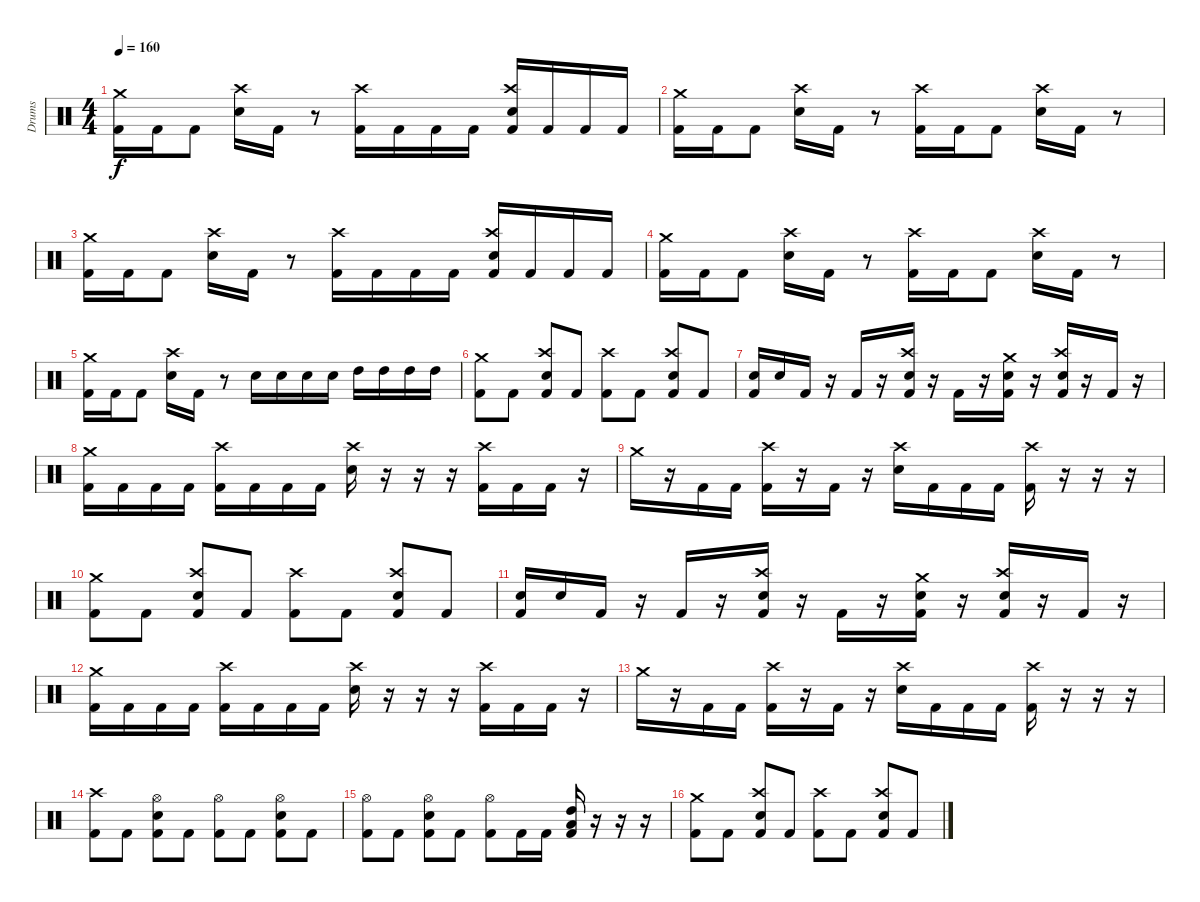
\track ("Drums" "Drums") {instrument percussion}
\staff {score}
\articulation defaults
\ts (4 4)
\tempo 160
\clef neutral
\ks c
("Crash medium (hit)" "Kick (hit) 2").16{dy f} "Kick (hit) 2".16 "Kick (hit) 2".8 ("Crash high (hit)" "Electric Snare (hit)").16 "Kick (hit) 2".16 r.8 ("Crash high (hit)" "Kick (hit) 2").16 "Kick (hit) 2".16 "Kick (hit) 2".16 "Kick (hit) 2".16 ("Crash high (hit)" "Electric Snare (hit)" "Kick (hit) 2").16 "Kick (hit) 2".16 "Kick (hit) 2".16 "Kick (hit) 2".16 |
("Crash medium (hit)" "Kick (hit) 2").16 "Kick (hit) 2".16 "Kick (hit) 2".8 ("Crash high (hit)" "Electric Snare (hit)").16 "Kick (hit) 2".16 r.8 ("Crash high (hit)" "Kick (hit) 2").16 "Kick (hit) 2".16 "Kick (hit) 2".8 ("Crash high (hit)" "Electric Snare (hit)").16 "Kick (hit) 2".16 r.8 |
("Crash medium (hit)" "Kick (hit) 2").16 "Kick (hit) 2".16 "Kick (hit) 2".8 ("Crash high (hit)" "Electric Snare (hit)").16 "Kick (hit) 2".16 r.8 ("Crash high (hit)" "Kick (hit) 2").16 "Kick (hit) 2".16 "Kick (hit) 2".16 "Kick (hit) 2".16 ("Crash high (hit)" "Electric Snare (hit)" "Kick (hit) 2").16 "Kick (hit) 2".16 "Kick (hit) 2".16 "Kick (hit) 2".16 |
("Crash medium (hit)" "Kick (hit) 2").16 "Kick (hit) 2".16 "Kick (hit) 2".8 ("Crash high (hit)" "Electric Snare (hit)").16 "Kick (hit) 2".16 r.8 ("Crash high (hit)" "Kick (hit) 2").16 "Kick (hit) 2".16 "Kick (hit) 2".8 ("Crash high (hit)" "Electric Snare (hit)").16 "Kick (hit) 2".16 r.8 |
("Crash medium (hit)" "Kick (hit) 2").16 "Kick (hit) 2".16 "Kick (hit) 2".8 ("Crash high (hit)" "Electric Snare (hit)").16 "Kick (hit) 2".16 r.8 "Electric Snare (hit)".16 "Electric Snare (hit)".16 "Electric Snare (hit)".16 "Electric Snare (hit)".16 "High Tom (hit)".16 "High Tom (hit)".16 "High Tom (hit)".16 "High Tom (hit)".16 |
("Crash medium (hit)" "Kick (hit) 2").8 "Kick (hit) 2".8 ("Crash high (hit)" "Electric Snare (hit)" "Kick (hit) 2").8 "Kick (hit) 2".8 ("Crash high (hit)" "Kick (hit) 2").8 "Kick (hit) 2".8 ("Crash high (hit)" "Electric Snare (hit)" "Kick (hit) 2").8 "Kick (hit) 2".8 |
("Electric Snare (hit)" "Kick (hit) 2").16 "Electric Snare (hit)".16 "Kick (hit) 2".16 r.16 "Kick (hit) 2".16 r.16 ("Crash high (hit)" "Electric Snare (hit)" "Kick (hit) 2").16 r.16 "Kick (hit) 2".16 r.16 ("Crash medium (hit)" "Electric Snare (hit)" "Kick (hit) 2").16 r.16 ("Crash high (hit)" "Electric Snare (hit)" "Kick (hit) 2").16 r.16 "Kick (hit) 2".16 r.16 |
("Crash medium (hit)" "Kick (hit) 2").16 "Kick (hit) 2".16 "Kick (hit) 2".16 "Kick (hit) 2".16 ("Crash high (hit)" "Kick (hit) 2").16 "Kick (hit) 2".16 "Kick (hit) 2".16 "Kick (hit) 2".16 ("Crash high (hit)" "Electric Snare (hit)").16 r.16 r.16 r.16 ("Crash high (hit)" "Kick (hit) 2").16 "Kick (hit) 2".16 "Kick (hit) 2".16 r.16 |
"Crash medium (hit)".16 r.16 "Kick (hit) 2".16 "Kick (hit) 2".16 ("Crash high (hit)" "Kick (hit) 2").16 r.16 "Kick (hit) 2".16 r.16 ("Crash high (hit)" "Electric Snare (hit)").16 "Kick (hit) 2".16 "Kick (hit) 2".16 "Kick (hit) 2".16 ("Crash high (hit)" "Kick (hit) 2").16 r.16 r.16 r.16 |
("Crash medium (hit)" "Kick (hit) 2").8 "Kick (hit) 2".8 ("Crash high (hit)" "Electric Snare (hit)" "Kick (hit) 2").8 "Kick (hit) 2".8 ("Crash high (hit)" "Kick (hit) 2").8 "Kick (hit) 2".8 ("Crash high (hit)" "Electric Snare (hit)" "Kick (hit) 2").8 "Kick (hit) 2".8 |
("Electric Snare (hit)" "Kick (hit) 2").16 "Electric Snare (hit)".16 "Kick (hit) 2".16 r.16 "Kick (hit) 2".16 r.16 ("Crash high (hit)" "Electric Snare (hit)" "Kick (hit) 2").16 r.16 "Kick (hit) 2".16 r.16 ("Crash medium (hit)" "Electric Snare (hit)" "Kick (hit) 2").16 r.16 ("Crash high (hit)" "Electric Snare (hit)" "Kick (hit) 2").16 r.16 "Kick (hit) 2".16 r.16 |
("Crash medium (hit)" "Kick (hit) 2").16 "Kick (hit) 2".16 "Kick (hit) 2".16 "Kick (hit) 2".16 ("Crash high (hit)" "Kick (hit) 2").16 "Kick (hit) 2".16 "Kick (hit) 2".16 "Kick (hit) 2".16 ("Crash high (hit)" "Electric Snare (hit)").16 r.16 r.16 r.16 ("Crash high (hit)" "Kick (hit) 2").16 "Kick (hit) 2".16 "Kick (hit) 2".16 r.16 |
"Crash medium (hit)".16 r.16 "Kick (hit) 2".16 "Kick (hit) 2".16 ("Crash high (hit)" "Kick (hit) 2").16 r.16 "Kick (hit) 2".16 r.16 ("Crash high (hit)" "Electric Snare (hit)").16 "Kick (hit) 2".16 "Kick (hit) 2".16 "Kick (hit) 2".16 ("Crash high (hit)" "Kick (hit) 2").16 r.16 r.16 r.16 |
("Crash high (hit)" "Kick (hit) 2").8 "Kick (hit) 2".8 ("Hi-Hat (open)" "Electric Snare (hit)" "Kick (hit) 2").8 "Kick (hit) 2".8 ("Hi-Hat (open)" "Kick (hit) 2").8 "Kick (hit) 2".8 ("Hi-Hat (open)" "Electric Snare (hit)" "Kick (hit) 2").8 "Kick (hit) 2".8 |
("Hi-Hat (open)" "Kick (hit) 2").8 "Kick (hit) 2".8 ("Hi-Hat (open)" "Electric Snare (hit)" "Kick (hit) 2").8 "Kick (hit) 2".8 ("Hi-Hat (open)" "Kick (hit) 2").8 "Kick (hit) 2".16 "Kick (hit) 2".16 ("High Tom (hit)" "Low Floor Tom (hit)" "Kick (hit) 2").16 r.16 r.16 r.16 |
("Crash medium (hit)" "Kick (hit) 2").8 "Kick (hit) 2".8 ("Crash high (hit)" "Electric Snare (hit)" "Kick (hit) 2").8 "Kick (hit) 2".8 ("Crash high (hit)" "Kick (hit) 2").8 "Kick (hit) 2".8 ("Crash high (hit)" "Electric Snare (hit)" "Kick (hit) 2").8 "Kick (hit) 2".8
